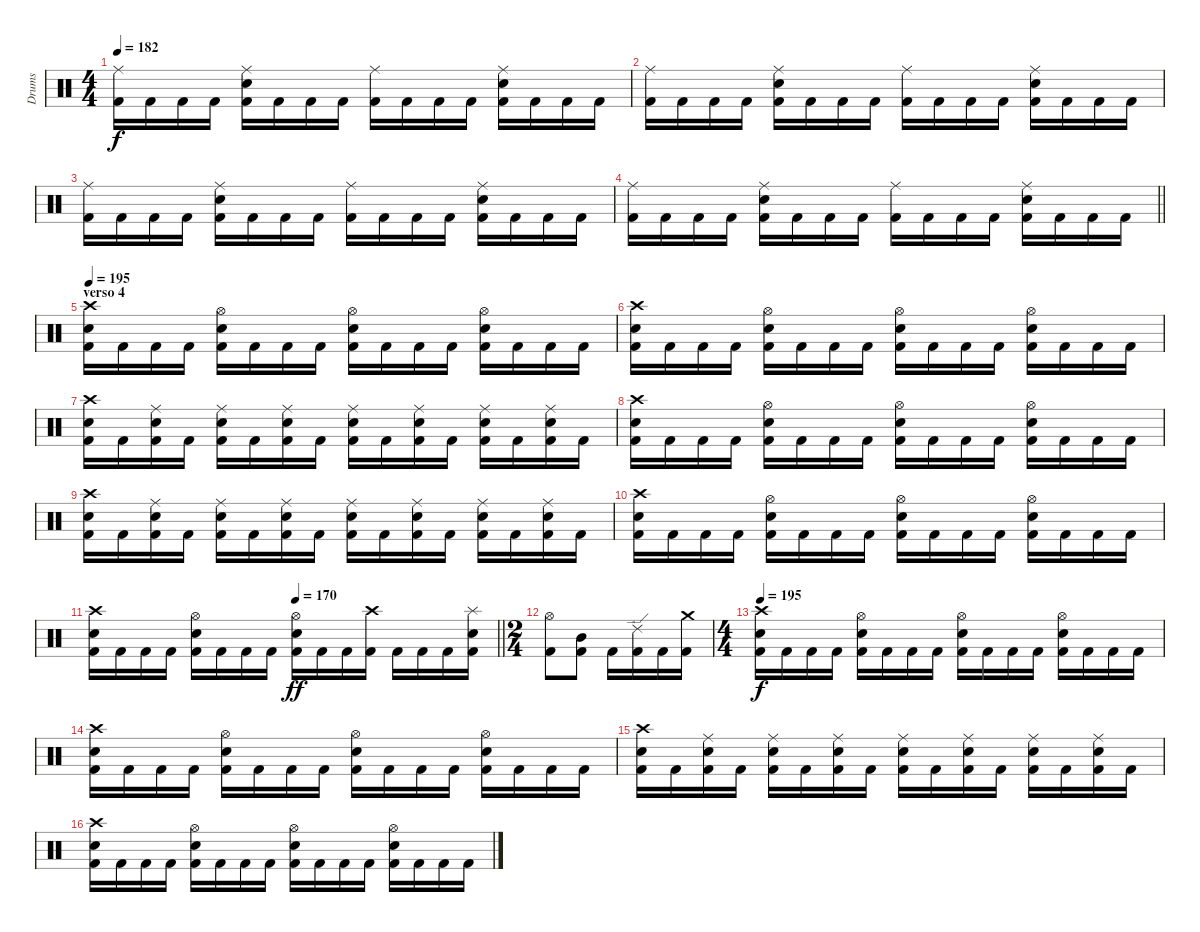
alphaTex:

\track ("Drums" "Drums") {instrument percussion}
\staff {score}
\articulation defaults
\ts (4 4)
\tempo 182
\clef neutral
\ks c
("Ride (middle)" "Kick (hit) 2").16{dy f} "Kick (hit) 2".16 "Kick (hit) 2".16 "Kick (hit) 2".16 ("Ride (middle)" "Electric Snare (hit)" "Kick (hit) 2").16 "Kick (hit) 2".16 "Kick (hit) 2".16 "Kick (hit) 2".16 ("Ride (middle)" "Kick (hit) 2").16 "Kick (hit) 2".16 "Kick (hit) 2".16 "Kick (hit) 2".16 ("Ride (middle)" "Electric Snare (hit)" "Kick (hit) 2").16 "Kick (hit) 2".16 "Kick (hit) 2".16 "Kick (hit) 2".16 |
("Ride (middle)" "Kick (hit) 2").16 "Kick (hit) 2".16 "Kick (hit) 2".16 "Kick (hit) 2".16 ("Ride (middle)" "Electric Snare (hit)" "Kick (hit) 2").16 "Kick (hit) 2".16 "Kick (hit) 2".16 "Kick (hit) 2".16 ("Ride (middle)" "Kick (hit) 2").16 "Kick (hit) 2".16 "Kick (hit) 2".16 "Kick (hit) 2".16 ("Ride (middle)" "Electric Snare (hit)" "Kick (hit) 2").16 "Kick (hit) 2".16 "Kick (hit) 2".16 "Kick (hit) 2".16 |
("Ride (middle)" "Kick (hit) 2").16 "Kick (hit) 2".16 "Kick (hit) 2".16 "Kick (hit) 2".16 ("Ride (middle)" "Electric Snare (hit)" "Kick (hit) 2").16 "Kick (hit) 2".16 "Kick (hit) 2".16 "Kick (hit) 2".16 ("Ride (middle)" "Kick (hit) 2").16 "Kick (hit) 2".16 "Kick (hit) 2".16 "Kick (hit) 2".16 ("Ride (middle)" "Electric Snare (hit)" "Kick (hit) 2").16 "Kick (hit) 2".16 "Kick (hit) 2".16 "Kick (hit) 2".16 |
\barLineRight lightlight
("Ride (middle)" "Kick (hit) 2").16 "Kick (hit) 2".16 "Kick (hit) 2".16 "Kick (hit) 2".16 ("Ride (middle)" "Electric Snare (hit)" "Kick (hit) 2").16 "Kick (hit) 2".16 "Kick (hit) 2".16 "Kick (hit) 2".16 ("Ride (middle)" "Kick (hit) 2").16 "Kick (hit) 2".16 "Kick (hit) 2".16 "Kick (hit) 2".16 ("Ride (middle)" "Electric Snare (hit)" "Kick (hit) 2").16 "Kick (hit) 2".16 "Kick (hit) 2".16 "Kick (hit) 2".16 |
\section ("" "verso 4")
\tempo 195
("Kick (hit) 2" "Crash high (hit)" "Electric Snare (hit)").16 "Kick (hit) 2".16 "Kick (hit) 2".16 "Kick (hit) 2".16 ("Kick (hit) 2" "Electric Snare (hit)" "Hi-Hat (open)").16 "Kick (hit) 2".16 "Kick (hit) 2".16 "Kick (hit) 2".16 ("Kick (hit) 2" "Electric Snare (hit)" "Hi-Hat (open)").16 "Kick (hit) 2".16 "Kick (hit) 2".16 "Kick (hit) 2".16 ("Kick (hit) 2" "Electric Snare (hit)" "Hi-Hat (open)").16 "Kick (hit) 2".16 "Kick (hit) 2".16 "Kick (hit) 2".16 |
("Kick (hit) 2" "Crash high (hit)" "Electric Snare (hit)").16 "Kick (hit) 2".16 "Kick (hit) 2".16 "Kick (hit) 2".16 ("Kick (hit) 2" "Electric Snare (hit)" "Hi-Hat (open)").16 "Kick (hit) 2".16 "Kick (hit) 2".16 "Kick (hit) 2".16 ("Kick (hit) 2" "Electric Snare (hit)" "Hi-Hat (open)").16 "Kick (hit) 2".16 "Kick (hit) 2".16 "Kick (hit) 2".16 ("Kick (hit) 2" "Electric Snare (hit)" "Hi-Hat (open)").16 "Kick (hit) 2".16 "Kick (hit) 2".16 "Kick (hit) 2".16 |
("Kick (hit) 2" "Electric Snare (hit)" "Crash high (hit)").16 "Kick (hit) 2".16 ("Kick (hit) 2" "Electric Snare (hit)" "Ride (middle)").16 "Kick (hit) 2".16 ("Kick (hit) 2" "Electric Snare (hit)" "Ride (middle)").16 "Kick (hit) 2".16 ("Kick (hit) 2" "Electric Snare (hit)" "Ride (middle)").16 "Kick (hit) 2".16 ("Kick (hit) 2" "Electric Snare (hit)" "Ride (middle)").16 "Kick (hit) 2".16 ("Kick (hit) 2" "Electric Snare (hit)" "Ride (middle)").16 "Kick (hit) 2".16 ("Kick (hit) 2" "Electric Snare (hit)" "Ride (middle)").16 "Kick (hit) 2".16 ("Kick (hit) 2" "Electric Snare (hit)" "Ride (middle)").16 "Kick (hit) 2".16 |
("Kick (hit) 2" "Crash high (hit)" "Electric Snare (hit)").16 "Kick (hit) 2".16 "Kick (hit) 2".16 "Kick (hit) 2".16 ("Kick (hit) 2" "Electric Snare (hit)" "Hi-Hat (open)").16 "Kick (hit) 2".16 "Kick (hit) 2".16 "Kick (hit) 2".16 ("Kick (hit) 2" "Electric Snare (hit)" "Hi-Hat (open)").16 "Kick (hit) 2".16 "Kick (hit) 2".16 "Kick (hit) 2".16 ("Kick (hit) 2" "Electric Snare (hit)" "Hi-Hat (open)").16 "Kick (hit) 2".16 "Kick (hit) 2".16 "Kick (hit) 2".16 |
("Kick (hit) 2" "Electric Snare (hit)" "Crash high (hit)").16 "Kick (hit) 2".16 ("Kick (hit) 2" "Electric Snare (hit)" "Ride (middle)").16 "Kick (hit) 2".16 ("Kick (hit) 2" "Electric Snare (hit)" "Ride (middle)").16 "Kick (hit) 2".16 ("Kick (hit) 2" "Electric Snare (hit)" "Ride (middle)").16 "Kick (hit) 2".16 ("Kick (hit) 2" "Electric Snare (hit)" "Ride (middle)").16 "Kick (hit) 2".16 ("Kick (hit) 2" "Electric Snare (hit)" "Ride (middle)").16 "Kick (hit) 2".16 ("Kick (hit) 2" "Electric Snare (hit)" "Ride (middle)").16 "Kick (hit) 2".16 ("Kick (hit) 2" "Electric Snare (hit)" "Ride (middle)").16 "Kick (hit) 2".16 |
("Kick (hit) 2" "Crash high (hit)" "Electric Snare (hit)").16 "Kick (hit) 2".16 "Kick (hit) 2".16 "Kick (hit) 2".16 ("Kick (hit) 2" "Electric Snare (hit)" "Hi-Hat (open)").16 "Kick (hit) 2".16 "Kick (hit) 2".16 "Kick (hit) 2".16 ("Kick (hit) 2" "Electric Snare (hit)" "Hi-Hat (open)").16 "Kick (hit) 2".16 "Kick (hit) 2".16 "Kick (hit) 2".16 ("Kick (hit) 2" "Electric Snare (hit)" "Hi-Hat (open)").16 "Kick (hit) 2".16 "Kick (hit) 2".16 "Kick (hit) 2".16 |
\tempo (170 0.5)
\barLineRight lightlight
("Kick (hit) 2" "Crash high (hit)" "Electric Snare (hit)").16 "Kick (hit) 2".16 "Kick (hit) 2".16 "Kick (hit) 2".16 ("Kick (hit) 2" "Electric Snare (hit)" "Hi-Hat (open)").16 "Kick (hit) 2".16 "Kick (hit) 2".16 "Kick (hit) 2".16 ("Kick (hit) 2" "Electric Snare (hit)" "Hi-Hat (open)").16{dy ff} "Kick (hit) 2".16 "Kick (hit) 2".16 ("Kick (hit) 2" "Crash high (hit)").16 "Kick (hit) 2".16 "Kick (hit) 2".16 "Kick (hit) 2".16 ("Kick (hit) 2" "Electric Snare (hit)" "Splash (hit)").16 |
\ts (2 4)
("Kick (hit) 2" "Hi-Hat (open)").8 ("Kick (hit) 2" "Mid Tom (hit)").8 "Kick (hit) 2".16 ("Kick (hit) 2" "Ride (edge) 2").16 "Kick (hit) 2".16 ("Kick (hit) 2" "Crash medium (hit)").16 |
\ts (4 4)
\tempo 195
("Kick (hit) 2" "Crash high (hit)" "Electric Snare (hit)").16{dy f} "Kick (hit) 2".16 "Kick (hit) 2".16 "Kick (hit) 2".16 ("Kick (hit) 2" "Electric Snare (hit)" "Hi-Hat (open)").16 "Kick (hit) 2".16 "Kick (hit) 2".16 "Kick (hit) 2".16 ("Kick (hit) 2" "Electric Snare (hit)" "Hi-Hat (open)").16 "Kick (hit) 2".16 "Kick (hit) 2".16 "Kick (hit) 2".16 ("Kick (hit) 2" "Electric Snare (hit)" "Hi-Hat (open)").16 "Kick (hit) 2".16 "Kick (hit) 2".16 "Kick (hit) 2".16 |
("Kick (hit) 2" "Crash high (hit)" "Electric Snare (hit)").16 "Kick (hit) 2".16 "Kick (hit) 2".16 "Kick (hit) 2".16 ("Kick (hit) 2" "Electric Snare (hit)" "Hi-Hat (open)").16 "Kick (hit) 2".16 "Kick (hit) 2".16 "Kick (hit) 2".16 ("Kick (hit) 2" "Electric Snare (hit)" "Hi-Hat (open)").16 "Kick (hit) 2".16 "Kick (hit) 2".16 "Kick (hit) 2".16 ("Kick (hit) 2" "Electric Snare (hit)" "Hi-Hat (open)").16 "Kick (hit) 2".16 "Kick (hit) 2".16 "Kick (hit) 2".16 |
("Kick (hit) 2" "Electric Snare (hit)" "Crash high (hit)").16 "Kick (hit) 2".16 ("Kick (hit) 2" "Electric Snare (hit)" "Ride (middle)").16 "Kick (hit) 2".16 ("Kick (hit) 2" "Electric Snare (hit)" "Ride (middle)").16 "Kick (hit) 2".16 ("Kick (hit) 2" "Electric Snare (hit)" "Ride (middle)").16 "Kick (hit) 2".16 ("Kick (hit) 2" "Electric Snare (hit)" "Ride (middle)").16 "Kick (hit) 2".16 ("Kick (hit) 2" "Electric Snare (hit)" "Ride (middle)").16 "Kick (hit) 2".16 ("Kick (hit) 2" "Electric Snare (hit)" "Ride (middle)").16 "Kick (hit) 2".16 ("Kick (hit) 2" "Electric Snare (hit)" "Ride (middle)").16 "Kick (hit) 2".16 |
("Kick (hit) 2" "Crash high (hit)" "Electric Snare (hit)").16 "Kick (hit) 2".16 "Kick (hit) 2".16 "Kick (hit) 2".16 ("Kick (hit) 2" "Electric Snare (hit)" "Hi-Hat (open)").16 "Kick (hit) 2".16 "Kick (hit) 2".16 "Kick (hit) 2".16 ("Kick (hit) 2" "Electric Snare (hit)" "Hi-Hat (open)").16 "Kick (hit) 2".16 "Kick (hit) 2".16 "Kick (hit) 2".16 ("Kick (hit) 2" "Electric Snare (hit)" "Hi-Hat (open)").16 "Kick (hit) 2".16 "Kick (hit) 2".16 "Kick (hit) 2".16
